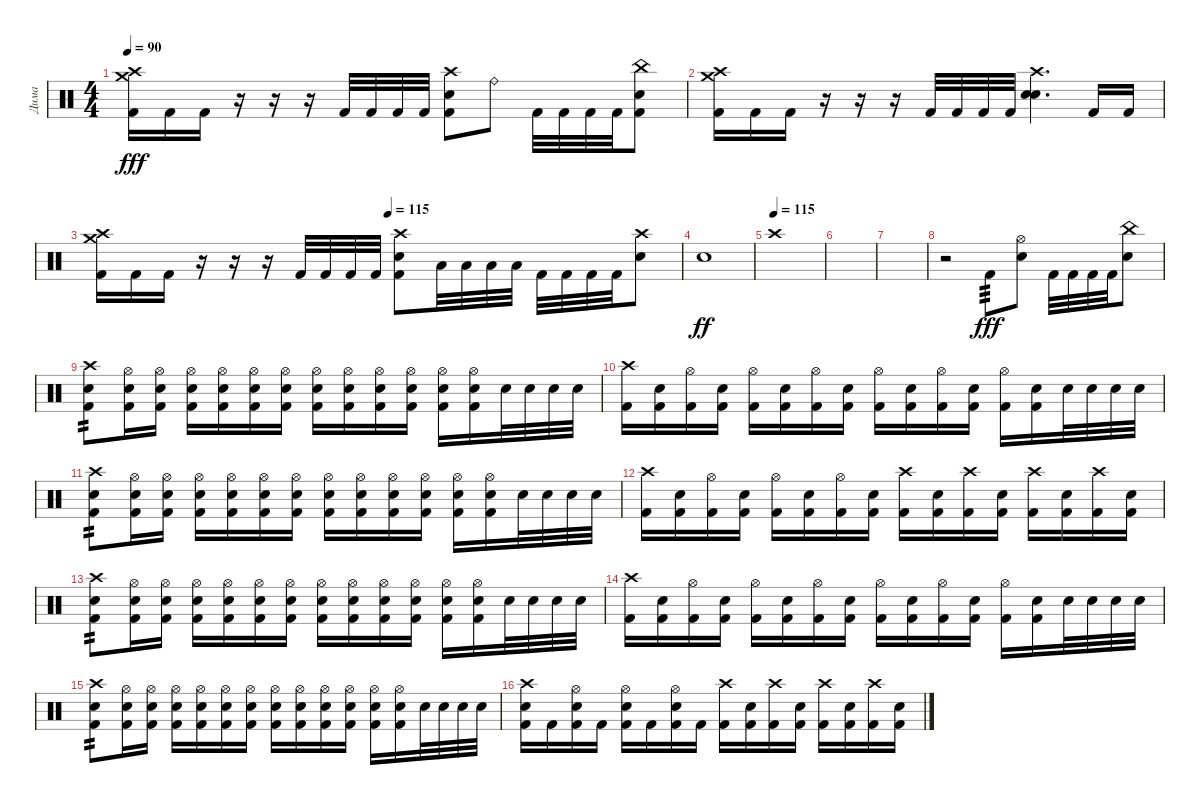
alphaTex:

\track ("Дима " "Дима ") {instrument percussion}
\staff {score}
\articulation defaults
\ts (4 4)
\tempo 90
\clef neutral
\ks c
("Crash high (hit)" "Crash medium (hit)" "Kick (hit) 2").16{dy fff} "Kick (hit) 2".16 "Kick (hit) 2".16 r.16 r.16 r.16 "Kick (hit) 2".32 "Kick (hit) 2".32 "Kick (hit) 2".32 "Kick (hit) 2".32 ("Crash high (hit)" "Snare (hit) 2" "Kick (hit) 2").8 "Ride (bell)".8 "Kick (hit) 2".32 "Kick (hit) 2".32 "Kick (hit) 2".32 "Kick (hit) 2".32 ("China (hit)" "Snare (hit) 2" "Kick (hit) 2").8 |
("Crash high (hit)" "Crash medium (hit)" "Kick (hit) 2").16 "Kick (hit) 2".16 "Kick (hit) 2".16 r.16 r.16 r.16 "Kick (hit) 2".32 "Kick (hit) 2".32 "Kick (hit) 2".32 "Kick (hit) 2".32 ("Crash high (hit)" "Snare (hit) 2" "Snare (hit) 2").4{d} "Kick (hit) 2".16 "Kick (hit) 2".16 |
\tempo (115 0.5)
("Crash high (hit)" "Crash medium (hit)" "Kick (hit) 2").16 "Kick (hit) 2".16 "Kick (hit) 2".16 r.16 r.16 r.16 "Kick (hit) 2".32 "Kick (hit) 2".32 "Kick (hit) 2".32 "Kick (hit) 2".32 ("Crash high (hit)" "Snare (hit) 2" "Kick (hit) 2").8 "Low Tom (hit)".32 "Low Tom (hit)".32 "Low Tom (hit)".32 "Low Tom (hit)".32 "Kick (hit) 2".32 "Kick (hit) 2".32 "Kick (hit) 2".32 "Kick (hit) 2".32 ("Crash high (hit)" "Snare (hit) 2").8 |
"Snare (hit) 2".1{dy ff} |
\tempo (115)
"Crash high (hit)".1 |
|
|
r.2 "Kick (hit) 2".8{tp 3 dy fff} ("Hi-Hat (open)" "Snare (hit) 2").8 "Kick (hit) 2".32 "Kick (hit) 2".32 "Kick (hit) 2".32 "Kick (hit) 2".32 ("China (hit)" "Snare (hit) 2").8 |
("Crash high (hit)" "Snare (hit) 2" "Kick (hit) 2").8{tp 2} ("Hi-Hat (open)" "Snare (hit) 2" "Kick (hit) 2").16 ("Hi-Hat (open)" "Snare (hit) 2" "Kick (hit) 2").16 ("Hi-Hat (open)" "Snare (hit) 2" "Kick (hit) 2").16 ("Hi-Hat (open)" "Snare (hit) 2" "Kick (hit) 2").16 ("Hi-Hat (open)" "Snare (hit) 2" "Kick (hit) 2").16 ("Hi-Hat (open)" "Snare (hit) 2" "Kick (hit) 2").16 ("Hi-Hat (open)" "Snare (hit) 2" "Kick (hit) 2").16 ("Hi-Hat (open)" "Snare (hit) 2" "Kick (hit) 2").16 ("Hi-Hat (open)" "Snare (hit) 2" "Kick (hit) 2").16 ("Hi-Hat (open)" "Snare (hit) 2" "Kick (hit) 2").16 ("Hi-Hat (open)" "Snare (hit) 2" "Kick (hit) 2").16 ("Hi-Hat (open)" "Snare (hit) 2" "Kick (hit) 2").16 "Snare (hit) 2".32 "Snare (hit) 2".32 "Snare (hit) 2".32 "Snare (hit) 2".32 |
("Crash high (hit)" "Kick (hit) 2").16 ("Snare (hit) 2" "Kick (hit) 2").16 ("Hi-Hat (open)" "Kick (hit) 2").16 ("Snare (hit) 2" "Kick (hit) 2").16 ("Hi-Hat (open)" "Kick (hit) 2").16 ("Snare (hit) 2" "Kick (hit) 2").16 ("Hi-Hat (open)" "Kick (hit) 2").16 ("Snare (hit) 2" "Kick (hit) 2").16 ("Hi-Hat (open)" "Kick (hit) 2").16 ("Snare (hit) 2" "Kick (hit) 2").16 ("Hi-Hat (open)" "Kick (hit) 2").16 ("Snare (hit) 2" "Kick (hit) 2").16 ("Hi-Hat (open)" "Kick (hit) 2").16 ("Snare (hit) 2" "Kick (hit) 2").16 "Snare (hit) 2".32 "Snare (hit) 2".32 "Snare (hit) 2".32 "Snare (hit) 2".32 |
("Crash high (hit)" "Snare (hit) 2" "Kick (hit) 2").8{tp 2} ("Hi-Hat (open)" "Snare (hit) 2" "Kick (hit) 2").16 ("Hi-Hat (open)" "Snare (hit) 2" "Kick (hit) 2").16 ("Hi-Hat (open)" "Snare (hit) 2" "Kick (hit) 2").16 ("Hi-Hat (open)" "Snare (hit) 2" "Kick (hit) 2").16 ("Hi-Hat (open)" "Snare (hit) 2" "Kick (hit) 2").16 ("Hi-Hat (open)" "Snare (hit) 2" "Kick (hit) 2").16 ("Hi-Hat (open)" "Snare (hit) 2" "Kick (hit) 2").16 ("Hi-Hat (open)" "Snare (hit) 2" "Kick (hit) 2").16 ("Hi-Hat (open)" "Snare (hit) 2" "Kick (hit) 2").16 ("Hi-Hat (open)" "Snare (hit) 2" "Kick (hit) 2").16 ("Hi-Hat (open)" "Snare (hit) 2" "Kick (hit) 2").16 ("Hi-Hat (open)" "Snare (hit) 2" "Kick (hit) 2").16 "Snare (hit) 2".32 "Snare (hit) 2".32 "Snare (hit) 2".32 "Snare (hit) 2".32 |
("Crash high (hit)" "Kick (hit) 2").16 ("Snare (hit) 2" "Kick (hit) 2").16 ("Hi-Hat (open)" "Kick (hit) 2").16 ("Snare (hit) 2" "Kick (hit) 2").16 ("Hi-Hat (open)" "Kick (hit) 2").16 ("Snare (hit) 2" "Kick (hit) 2").16 ("Hi-Hat (open)" "Kick (hit) 2").16 ("Snare (hit) 2" "Kick (hit) 2").16 ("Crash high (hit)" "Kick (hit) 2").16 ("Snare (hit) 2" "Kick (hit) 2").16 ("Crash high (hit)" "Kick (hit) 2").16 ("Snare (hit) 2" "Kick (hit) 2").16 ("Crash high (hit)" "Kick (hit) 2").16 ("Snare (hit) 2" "Kick (hit) 2").16 ("Crash high (hit)" "Kick (hit) 2").16 ("Snare (hit) 2" "Kick (hit) 2").16 |
("Crash high (hit)" "Snare (hit) 2" "Kick (hit) 2").8{tp 2} ("Hi-Hat (open)" "Snare (hit) 2" "Kick (hit) 2").16 ("Hi-Hat (open)" "Snare (hit) 2" "Kick (hit) 2").16 ("Hi-Hat (open)" "Snare (hit) 2" "Kick (hit) 2").16 ("Hi-Hat (open)" "Snare (hit) 2" "Kick (hit) 2").16 ("Hi-Hat (open)" "Snare (hit) 2" "Kick (hit) 2").16 ("Hi-Hat (open)" "Snare (hit) 2" "Kick (hit) 2").16 ("Hi-Hat (open)" "Snare (hit) 2" "Kick (hit) 2").16 ("Hi-Hat (open)" "Snare (hit) 2" "Kick (hit) 2").16 ("Hi-Hat (open)" "Snare (hit) 2" "Kick (hit) 2").16 ("Hi-Hat (open)" "Snare (hit) 2" "Kick (hit) 2").16 ("Hi-Hat (open)" "Snare (hit) 2" "Kick (hit) 2").16 ("Hi-Hat (open)" "Snare (hit) 2" "Kick (hit) 2").16 "Snare (hit) 2".32 "Snare (hit) 2".32 "Snare (hit) 2".32 "Snare (hit) 2".32 |
("Crash high (hit)" "Kick (hit) 2").16 ("Snare (hit) 2" "Kick (hit) 2").16 ("Hi-Hat (open)" "Kick (hit) 2").16 ("Snare (hit) 2" "Kick (hit) 2").16 ("Hi-Hat (open)" "Kick (hit) 2").16 ("Snare (hit) 2" "Kick (hit) 2").16 ("Hi-Hat (open)" "Kick (hit) 2").16 ("Snare (hit) 2" "Kick (hit) 2").16 ("Hi-Hat (open)" "Kick (hit) 2").16 ("Snare (hit) 2" "Kick (hit) 2").16 ("Hi-Hat (open)" "Kick (hit) 2").16 ("Snare (hit) 2" "Kick (hit) 2").16 ("Hi-Hat (open)" "Kick (hit) 2").16 ("Snare (hit) 2" "Kick (hit) 2").16 "Snare (hit) 2".32 "Snare (hit) 2".32 "Snare (hit) 2".32 "Snare (hit) 2".32 |
("Crash high (hit)" "Snare (hit) 2" "Kick (hit) 2").8{tp 2} ("Hi-Hat (open)" "Snare (hit) 2" "Kick (hit) 2").16 ("Hi-Hat (open)" "Snare (hit) 2" "Kick (hit) 2").16 ("Hi-Hat (open)" "Snare (hit) 2" "Kick (hit) 2").16 ("Hi-Hat (open)" "Snare (hit) 2" "Kick (hit) 2").16 ("Hi-Hat (open)" "Snare (hit) 2" "Kick (hit) 2").16 ("Hi-Hat (open)" "Snare (hit) 2" "Kick (hit) 2").16 ("Hi-Hat (open)" "Snare (hit) 2" "Kick (hit) 2").16 ("Hi-Hat (open)" "Snare (hit) 2" "Kick (hit) 2").16 ("Hi-Hat (open)" "Snare (hit) 2" "Kick (hit) 2").16 ("Hi-Hat (open)" "Snare (hit) 2" "Kick (hit) 2").16 ("Hi-Hat (open)" "Snare (hit) 2" "Kick (hit) 2").16 ("Hi-Hat (open)" "Snare (hit) 2" "Kick (hit) 2").16 "Snare (hit) 2".32 "Snare (hit) 2".32 "Snare (hit) 2".32 "Snare (hit) 2".32 |
("Crash high (hit)" "Snare (hit) 2" "Kick (hit) 2").16 "Kick (hit) 2".16 ("Hi-Hat (open)" "Snare (hit) 2" "Kick (hit) 2").16 "Kick (hit) 2".16 ("Hi-Hat (open)" "Snare (hit) 2" "Kick (hit) 2").16 "Kick (hit) 2".16 ("Hi-Hat (open)" "Snare (hit) 2" "Kick (hit) 2").16 "Kick (hit) 2".16 ("Crash high (hit)" "Kick (hit) 2").16 ("Snare (hit) 2" "Kick (hit) 2").16 ("Crash high (hit)" "Kick (hit) 2").16 ("Snare (hit) 2" "Kick (hit) 2").16 ("Crash high (hit)" "Kick (hit) 2").16 ("Snare (hit) 2" "Kick (hit) 2").16 ("Crash high (hit)" "Kick (hit) 2").16 ("Snare (hit) 2" "Kick (hit) 2").16
